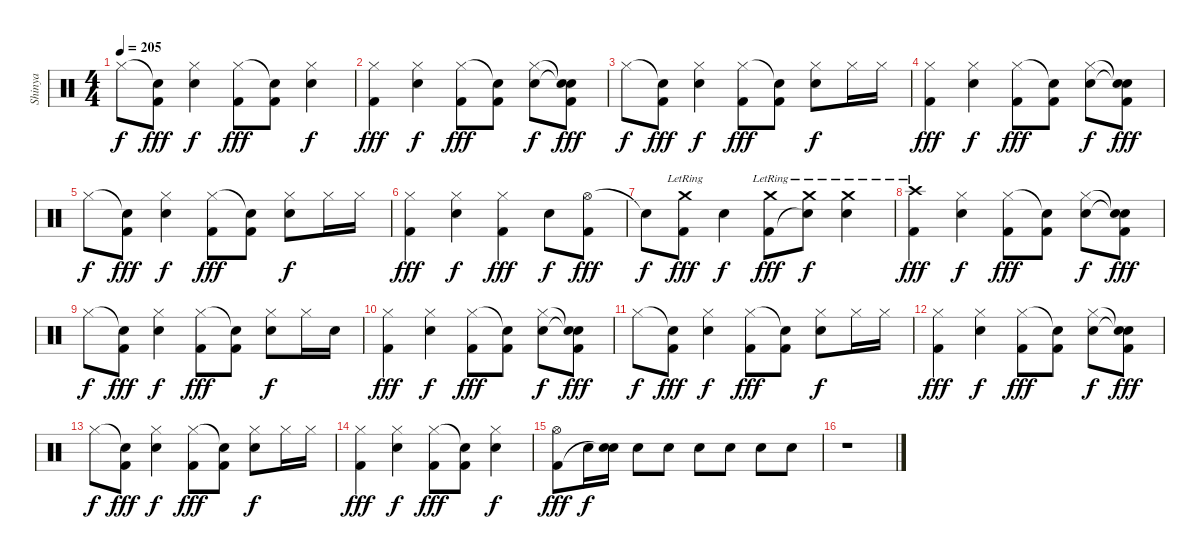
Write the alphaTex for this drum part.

\track ("Shinya" "Shinya") {instrument percussion}
\staff {score}
\articulation defaults
\ts (4 4)
\tempo 205
\clef neutral
\ks c "Hi-Hat (closed)".8{dy f}
("Snare (hit)"{t} "Kick (hit) 2").8{dy fff} ("Hi-Hat (closed)" "Electric Snare (hit)").4{dy f} ("Hi-Hat (closed)" "Kick (hit) 2").8{dy fff} ("Snare (hit)"{t} "Kick (hit) 2").8 ("Hi-Hat (closed)" "Electric Snare (hit)").4{dy f} |
("Hi-Hat (closed)" "Kick (hit) 2").4{dy fff} ("Hi-Hat (closed)" "Electric Snare (hit)").4{dy f} ("Hi-Hat (closed)" "Kick (hit) 2").8{dy fff} ("Snare (hit)"{t} "Kick (hit) 2").8 ("Hi-Hat (closed)" "Electric Snare (hit)").8{dy f} ("Snare (hit)"{t} "Snare (hit)"{t} "Kick (hit) 2").8{dy fff} |
"Hi-Hat (closed)".8{dy f} ("Snare (hit)"{t} "Kick (hit) 2").8{dy fff} ("Hi-Hat (closed)" "Electric Snare (hit)").4{dy f} ("Hi-Hat (closed)" "Kick (hit) 2").8{dy fff} ("Snare (hit)"{t} "Kick (hit) 2").8 ("Hi-Hat (closed)" "Electric Snare (hit)").8{dy f} "Hi-Hat (closed)".16 "Hi-Hat (closed)".16 |
("Hi-Hat (closed)" "Kick (hit) 2").4{dy fff} ("Hi-Hat (closed)" "Electric Snare (hit)").4{dy f} ("Hi-Hat (closed)" "Kick (hit) 2").8{dy fff} ("Snare (hit)"{t} "Kick (hit) 2").8 ("Hi-Hat (closed)" "Electric Snare (hit)").8{dy f} ("Snare (hit)"{t} "Snare (hit)"{t} "Kick (hit) 2").8{dy fff} |
"Hi-Hat (closed)".8{dy f} ("Snare (hit)"{t} "Kick (hit) 2").8{dy fff} ("Hi-Hat (closed)" "Electric Snare (hit)").4{dy f} ("Hi-Hat (closed)" "Kick (hit) 2").8{dy fff} ("Snare (hit)"{t} "Kick (hit) 2").8 ("Hi-Hat (closed)" "Electric Snare (hit)").8{dy f} "Hi-Hat (closed)".16 "Hi-Hat (closed)".16 |
("Hi-Hat (closed)" "Kick (hit) 2").4{dy fff} ("Hi-Hat (closed)" "Electric Snare (hit)").4{dy f} ("Hi-Hat (closed)" "Kick (hit) 2").4{dy fff} "Electric Snare (hit)".8{dy f} ("Hi-Hat (open)" "Kick (hit) 2").8{dy fff} |
"Snare (hit)"{t}.8{dy f} ("Crash medium (hit)"{lr} "Kick (hit) 2").8{dy fff} "Electric Snare (hit)".4{dy f} ("Crash medium (hit)"{lr} "Kick (hit) 2").8{dy fff} ("Crash medium (hit)"{lr} "Snare (hit)"{t}).8{dy f} ("Crash medium (hit)"{lr} "Electric Snare (hit)").4 |
("Crash high (hit)"{lr} "Kick (hit) 2").4{dy fff} ("Hi-Hat (closed)" "Electric Snare (hit)").4{dy f} ("Hi-Hat (closed)" "Kick (hit) 2").8{dy fff} ("Snare (hit)"{t} "Kick (hit) 2").8 ("Hi-Hat (closed)" "Electric Snare (hit)").8{dy f} ("Snare (hit)"{t} "Snare (hit)"{t} "Kick (hit) 2").8{dy fff} |
"Hi-Hat (closed)".8{dy f} ("Snare (hit)"{t} "Kick (hit) 2").8{dy fff} ("Hi-Hat (closed)" "Electric Snare (hit)").4{dy f} ("Hi-Hat (closed)" "Kick (hit) 2").8{dy fff} ("Snare (hit)"{t} "Kick (hit) 2").8 ("Hi-Hat (closed)" "Electric Snare (hit)").8{dy f} "Hi-Hat (closed)".16 "Electric Snare (hit)".16 |
("Hi-Hat (closed)" "Kick (hit) 2").4{dy fff} ("Hi-Hat (closed)" "Electric Snare (hit)").4{dy f} ("Hi-Hat (closed)" "Kick (hit) 2").8{dy fff} ("Snare (hit)"{t} "Kick (hit) 2").8 ("Hi-Hat (closed)" "Electric Snare (hit)").8{dy f} ("Snare (hit)"{t} "Snare (hit)"{t} "Kick (hit) 2").8{dy fff} |
"Hi-Hat (closed)".8{dy f} ("Snare (hit)"{t} "Kick (hit) 2").8{dy fff} ("Hi-Hat (closed)" "Electric Snare (hit)").4{dy f} ("Hi-Hat (closed)" "Kick (hit) 2").8{dy fff} ("Snare (hit)"{t} "Kick (hit) 2").8 ("Hi-Hat (closed)" "Electric Snare (hit)").8{dy f} "Hi-Hat (closed)".16 "Hi-Hat (closed)".16 |
("Hi-Hat (closed)" "Kick (hit) 2").4{dy fff} ("Hi-Hat (closed)" "Electric Snare (hit)").4{dy f} ("Hi-Hat (closed)" "Kick (hit) 2").8{dy fff} ("Snare (hit)"{t} "Kick (hit) 2").8 ("Hi-Hat (closed)" "Electric Snare (hit)").8{dy f} ("Snare (hit)"{t} "Snare (hit)"{t} "Kick (hit) 2").8{dy fff} |
"Hi-Hat (closed)".8{dy f} ("Snare (hit)"{t} "Kick (hit) 2").8{dy fff} ("Hi-Hat (closed)" "Electric Snare (hit)").4{dy f} ("Hi-Hat (closed)" "Kick (hit) 2").8{dy fff} ("Snare (hit)"{t} "Kick (hit) 2").8 ("Hi-Hat (closed)" "Electric Snare (hit)").8{dy f} "Hi-Hat (closed)".16 "Hi-Hat (closed)".16 |
("Hi-Hat (closed)" "Kick (hit) 2").4{dy fff} ("Hi-Hat (closed)" "Electric Snare (hit)").4{dy f} ("Hi-Hat (closed)" "Kick (hit) 2").8{dy fff} ("Snare (hit)"{t} "Kick (hit) 2").8 ("Hi-Hat (closed)" "Electric Snare (hit)").4{dy f} |
("Hi-Hat (open)" "Kick (hit) 2").8{dy fff} "Electric Snare (hit)".16{dy f} ("Electric Snare (hit)" "Snare (hit)"{t}).16 "Electric Snare (hit)".8 "Electric Snare (hit)".8 "Electric Snare (hit)".8 "Electric Snare (hit)".8 "Electric Snare (hit)".8 "Electric Snare (hit)".8 |
r.1
